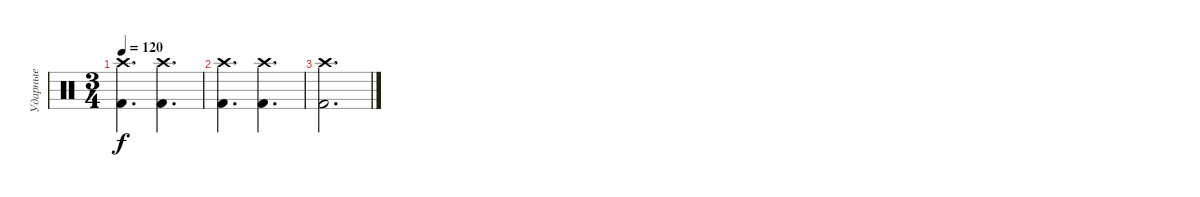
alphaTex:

\track ("Ударные" "Ударные") {instrument percussion}
\staff {score}
\articulation defaults
\ts (3 4)
\tempo 120
\clef neutral
\ks c
("Crash high (hit)" "Kick (hit) 2").4{d dy f} ("Crash high (hit)" "Kick (hit) 2").4{d} |
("Crash high (hit)" "Kick (hit) 2").4{d} ("Crash high (hit)" "Kick (hit) 2").4{d} |
("Crash high (hit)" "Kick (hit) 2").2{d}
